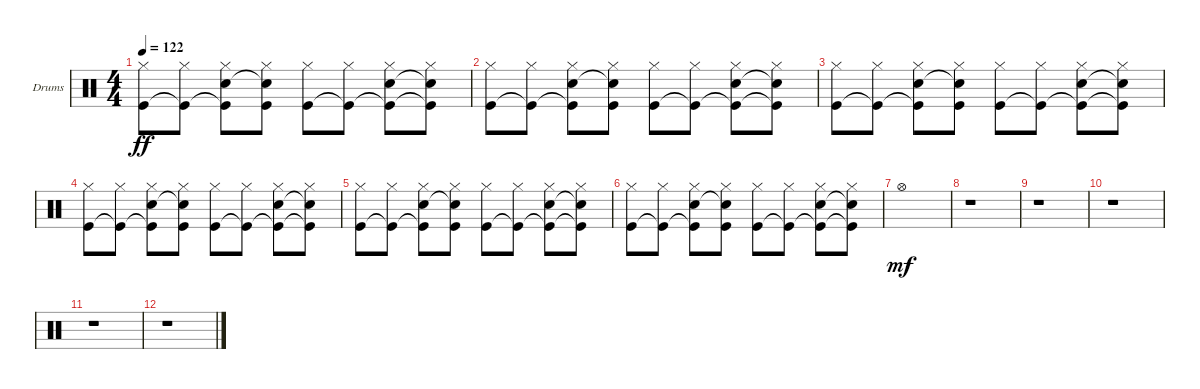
\defaultSystemsLayout 4
\bracketExtendMode groupsimilarinstruments
\firstSystemTrackNameOrientation horizontal
\otherSystemsTrackNameOrientation horizontal
\track ("Drumkit" "Drums") {instrument percussion}
\staff {score}
\articulation defaults
\ts (4 4)
\tempo 122
\clef neutral
\ks c
("Hi-Hat (closed)" "Kick (hit)").8{dy ff} ("Hi-Hat (closed)" "Kick (hit)"{t}).8 ("Hi-Hat (closed)" "Kick (hit)"{t} "Snare (hit) 2").8 ("Hi-Hat (closed)" "Kick (hit)" "Snare (hit) 2"{t}).8 ("Hi-Hat (closed)" "Kick (hit)").8 ("Hi-Hat (closed)" "Kick (hit)"{t}).8 ("Hi-Hat (closed)" "Kick (hit)"{t} "Snare (hit) 2").8 ("Hi-Hat (closed)" "Kick (hit)"{t} "Snare (hit) 2"{t}).8 |
("Hi-Hat (closed)" "Kick (hit)").8 ("Hi-Hat (closed)" "Kick (hit)"{t}).8 ("Hi-Hat (closed)" "Kick (hit)"{t} "Snare (hit) 2").8 ("Hi-Hat (closed)" "Kick (hit)" "Snare (hit) 2"{t}).8 ("Hi-Hat (closed)" "Kick (hit)").8 ("Hi-Hat (closed)" "Kick (hit)"{t}).8 ("Hi-Hat (closed)" "Kick (hit)"{t} "Snare (hit) 2").8 ("Hi-Hat (closed)" "Kick (hit)"{t} "Snare (hit) 2"{t}).8 |
("Hi-Hat (closed)" "Kick (hit)").8 ("Hi-Hat (closed)" "Kick (hit)"{t}).8 ("Hi-Hat (closed)" "Kick (hit)"{t} "Snare (hit) 2").8 ("Hi-Hat (closed)" "Kick (hit)" "Snare (hit) 2"{t}).8 ("Hi-Hat (closed)" "Kick (hit)").8 ("Hi-Hat (closed)" "Kick (hit)"{t}).8 ("Hi-Hat (closed)" "Kick (hit)"{t} "Snare (hit) 2").8 ("Hi-Hat (closed)" "Kick (hit)"{t} "Snare (hit) 2"{t}).8 |
("Hi-Hat (closed)" "Kick (hit)").8 ("Hi-Hat (closed)" "Kick (hit)"{t}).8 ("Hi-Hat (closed)" "Kick (hit)"{t} "Snare (hit) 2").8 ("Hi-Hat (closed)" "Kick (hit)" "Snare (hit) 2"{t}).8 ("Hi-Hat (closed)" "Kick (hit)").8 ("Hi-Hat (closed)" "Kick (hit)"{t}).8 ("Hi-Hat (closed)" "Kick (hit)"{t} "Snare (hit) 2").8 ("Hi-Hat (closed)" "Kick (hit)"{t} "Snare (hit) 2"{t}).8 |
("Hi-Hat (closed)" "Kick (hit)").8 ("Hi-Hat (closed)" "Kick (hit)"{t}).8 ("Hi-Hat (closed)" "Kick (hit)"{t} "Snare (hit) 2").8 ("Hi-Hat (closed)" "Kick (hit)" "Snare (hit) 2"{t}).8 ("Hi-Hat (closed)" "Kick (hit)").8 ("Hi-Hat (closed)" "Kick (hit)"{t}).8 ("Hi-Hat (closed)" "Kick (hit)"{t} "Snare (hit) 2").8 ("Hi-Hat (closed)" "Kick (hit)"{t} "Snare (hit) 2"{t}).8 |
("Hi-Hat (closed)" "Kick (hit)").8 ("Hi-Hat (closed)" "Kick (hit)"{t}).8 ("Hi-Hat (closed)" "Kick (hit)"{t} "Snare (hit) 2").8 ("Hi-Hat (closed)" "Kick (hit)" "Snare (hit) 2"{t}).8 ("Hi-Hat (closed)" "Kick (hit)").8 ("Hi-Hat (closed)" "Kick (hit)"{t}).8 ("Hi-Hat (closed)" "Kick (hit)"{t} "Snare (hit) 2").8 ("Hi-Hat (closed)" "Kick (hit)"{t} "Snare (hit) 2"{t}).8 |
"Hi-Hat (open)".1{dy mf} |
r.1 |
r.1 |
r.1 |
r.1 |
r.1
